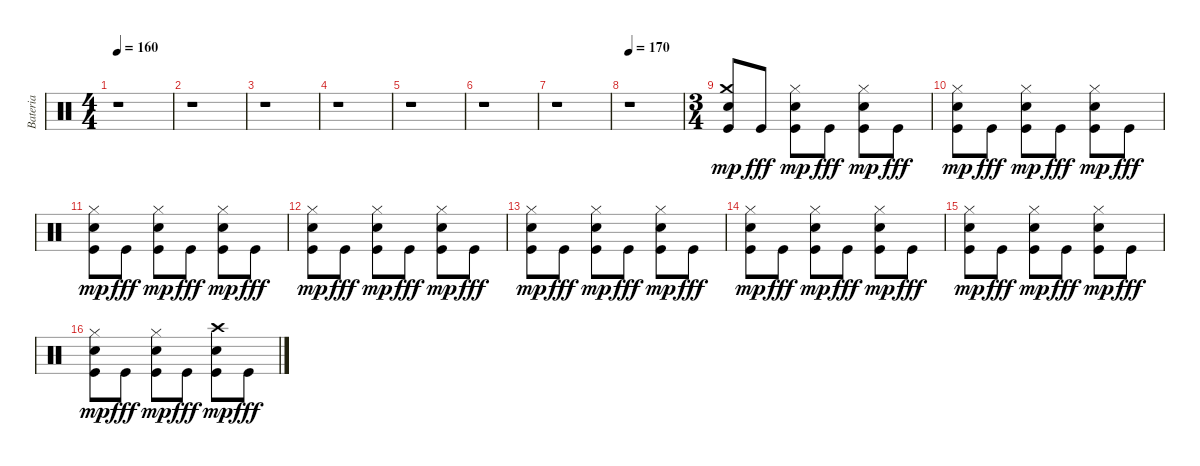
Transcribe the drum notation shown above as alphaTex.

\track ("Bateria" "Bateria") {instrument percussion}
\staff {score}
\articulation defaults
\ts (4 4)
\tempo 160
\clef neutral
\ks c
r.1{dy fff} |
r.1 |
r.1 |
r.1 |
r.1 |
r.1 |
r.1 |
\tempo 170
r.1 |
\ts (3 4)
("Kick (hit)" "Crash medium (hit)" "Snare (hit) 2").8{dy mp volume 12} "Kick (hit)".8{dy fff} ("Kick (hit)" "Snare (hit) 2" "Hi-Hat (closed)").8{dy mp} "Kick (hit)".8{dy fff} ("Kick (hit)" "Hi-Hat (closed)" "Snare (hit) 2").8{dy mp} "Kick (hit)".8{dy fff} |
("Kick (hit)" "Hi-Hat (closed)" "Snare (hit) 2").8{dy mp} "Kick (hit)".8{dy fff} ("Kick (hit)" "Hi-Hat (closed)" "Snare (hit) 2").8{dy mp} "Kick (hit)".8{dy fff} ("Kick (hit)" "Hi-Hat (closed)" "Snare (hit) 2").8{dy mp} "Kick (hit)".8{dy fff} |
("Kick (hit)" "Hi-Hat (closed)" "Snare (hit) 2").8{dy mp} "Kick (hit)".8{dy fff} ("Kick (hit)" "Hi-Hat (closed)" "Snare (hit) 2").8{dy mp} "Kick (hit)".8{dy fff} ("Kick (hit)" "Hi-Hat (closed)" "Snare (hit) 2").8{dy mp} "Kick (hit)".8{dy fff} |
("Kick (hit)" "Hi-Hat (closed)" "Snare (hit) 2").8{dy mp} "Kick (hit)".8{dy fff} ("Kick (hit)" "Hi-Hat (closed)" "Snare (hit) 2").8{dy mp} "Kick (hit)".8{dy fff} ("Kick (hit)" "Hi-Hat (closed)" "Snare (hit) 2").8{dy mp} "Kick (hit)".8{dy fff} |
("Kick (hit)" "Hi-Hat (closed)" "Snare (hit) 2").8{dy mp} "Kick (hit)".8{dy fff} ("Kick (hit)" "Hi-Hat (closed)" "Snare (hit) 2").8{dy mp} "Kick (hit)".8{dy fff} ("Kick (hit)" "Hi-Hat (closed)" "Snare (hit) 2").8{dy mp} "Kick (hit)".8{dy fff} |
("Kick (hit)" "Hi-Hat (closed)" "Snare (hit) 2").8{dy mp} "Kick (hit)".8{dy fff} ("Kick (hit)" "Hi-Hat (closed)" "Snare (hit) 2").8{dy mp} "Kick (hit)".8{dy fff} ("Kick (hit)" "Hi-Hat (closed)" "Snare (hit) 2").8{dy mp} "Kick (hit)".8{dy fff} |
("Kick (hit)" "Hi-Hat (closed)" "Snare (hit) 2").8{dy mp} "Kick (hit)".8{dy fff} ("Kick (hit)" "Hi-Hat (closed)" "Snare (hit) 2").8{dy mp} "Kick (hit)".8{dy fff} ("Kick (hit)" "Hi-Hat (closed)" "Snare (hit) 2").8{dy mp} "Kick (hit)".8{dy fff} |
("Kick (hit)" "Hi-Hat (closed)" "Snare (hit) 2").8{dy mp} "Kick (hit)".8{dy fff} ("Kick (hit)" "Hi-Hat (closed)" "Snare (hit) 2").8{dy mp} "Kick (hit)".8{dy fff} ("Kick (hit)" "Crash high (hit)" "Snare (hit) 2").8{dy mp} "Kick (hit)".8{dy fff}
